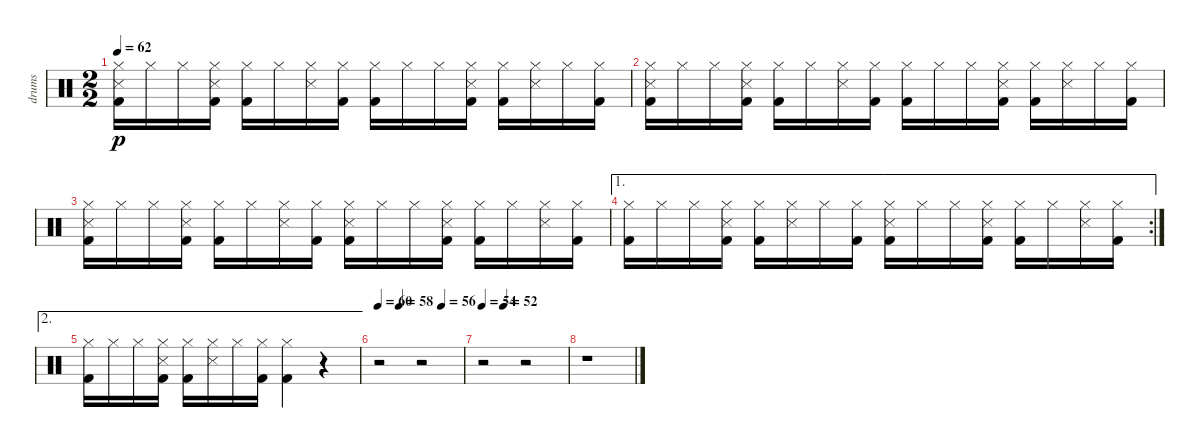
\track ("drums" "drums") {instrument percussion}
\staff {score}
\articulation defaults
\ts (2 2)
\tempo 62
\clef neutral
\ks c
("Hi-Hat (closed)" "Snare (side stick) 3" "Kick (hit) 2").16{dy p} "Hi-Hat (closed)".16 "Hi-Hat (closed)".16 ("Hi-Hat (closed)" "Snare (side stick) 3" "Kick (hit) 2").16 ("Hi-Hat (closed)" "Kick (hit) 2").16 "Hi-Hat (closed)".16 ("Hi-Hat (closed)" "Snare (side stick) 3").16 ("Hi-Hat (closed)" "Kick (hit) 2").16 ("Hi-Hat (closed)" "Kick (hit) 2").16 "Hi-Hat (closed)".16 "Hi-Hat (closed)".16 ("Hi-Hat (closed)" "Snare (side stick) 3" "Kick (hit) 2").16 ("Hi-Hat (closed)" "Kick (hit) 2").16 ("Hi-Hat (closed)" "Snare (side stick) 3").16 "Hi-Hat (closed)".16 ("Hi-Hat (closed)" "Kick (hit) 2").16 |
("Hi-Hat (closed)" "Snare (side stick) 3" "Kick (hit) 2").16 "Hi-Hat (closed)".16 "Hi-Hat (closed)".16 ("Hi-Hat (closed)" "Snare (side stick) 3" "Kick (hit) 2").16 ("Hi-Hat (closed)" "Kick (hit) 2").16 "Hi-Hat (closed)".16 ("Hi-Hat (closed)" "Snare (side stick) 3").16 ("Hi-Hat (closed)" "Kick (hit) 2").16 ("Hi-Hat (closed)" "Kick (hit) 2").16 "Hi-Hat (closed)".16 "Hi-Hat (closed)".16 ("Hi-Hat (closed)" "Snare (side stick) 3" "Kick (hit) 2").16 ("Hi-Hat (closed)" "Kick (hit) 2").16 ("Hi-Hat (closed)" "Snare (side stick) 3").16 "Hi-Hat (closed)".16 ("Hi-Hat (closed)" "Kick (hit) 2").16 |
("Hi-Hat (closed)" "Snare (side stick) 3" "Kick (hit) 2").16 "Hi-Hat (closed)".16 "Hi-Hat (closed)".16 ("Hi-Hat (closed)" "Snare (side stick) 3" "Kick (hit) 2").16 ("Hi-Hat (closed)" "Kick (hit) 2").16 "Hi-Hat (closed)".16 ("Hi-Hat (closed)" "Snare (side stick) 3").16 ("Hi-Hat (closed)" "Kick (hit) 2").16 ("Hi-Hat (closed)" "Snare (side stick) 3" "Kick (hit) 2").16 "Hi-Hat (closed)".16 "Hi-Hat (closed)".16 ("Hi-Hat (closed)" "Snare (side stick) 3" "Kick (hit) 2").16 ("Hi-Hat (closed)" "Kick (hit) 2").16 "Hi-Hat (closed)".16 ("Hi-Hat (closed)" "Snare (side stick) 3").16 ("Hi-Hat (closed)" "Kick (hit) 2").16 |
\ae 1
\rc 2
("Hi-Hat (closed)" "Kick (hit) 2").16 "Hi-Hat (closed)".16 "Hi-Hat (closed)".16 ("Hi-Hat (closed)" "Snare (side stick) 3" "Kick (hit) 2").16 ("Hi-Hat (closed)" "Kick (hit) 2").16 ("Hi-Hat (closed)" "Snare (side stick) 3").16 "Hi-Hat (closed)".16 ("Hi-Hat (closed)" "Kick (hit) 2").16 ("Hi-Hat (closed)" "Snare (side stick) 3" "Kick (hit) 2").16 "Hi-Hat (closed)".16 "Hi-Hat (closed)".16 ("Hi-Hat (closed)" "Snare (side stick) 3" "Kick (hit) 2").16 ("Hi-Hat (closed)" "Kick (hit) 2").16 "Hi-Hat (closed)".16 ("Hi-Hat (closed)" "Snare (side stick) 3").16 ("Hi-Hat (closed)" "Kick (hit) 2").16 |
\ae 2
("Hi-Hat (closed)" "Kick (hit) 2").16{volume 10} "Hi-Hat (closed)".16 "Hi-Hat (closed)".16 ("Hi-Hat (closed)" "Snare (side stick) 3" "Kick (hit) 2").16 ("Hi-Hat (closed)" "Kick (hit) 2").16{volume 8} ("Hi-Hat (closed)" "Snare (side stick) 3").16 "Hi-Hat (closed)".16 ("Hi-Hat (closed)" "Kick (hit) 2").16 ("Hi-Hat (closed)" "Kick (hit) 2").4 r.4 |
\tempo 60
\tempo (58 0.25)
\tempo (56 0.75)
r.2 r.2 |
\tempo 54
\tempo (52 0.25)
r.2 r.2 |
r.1
